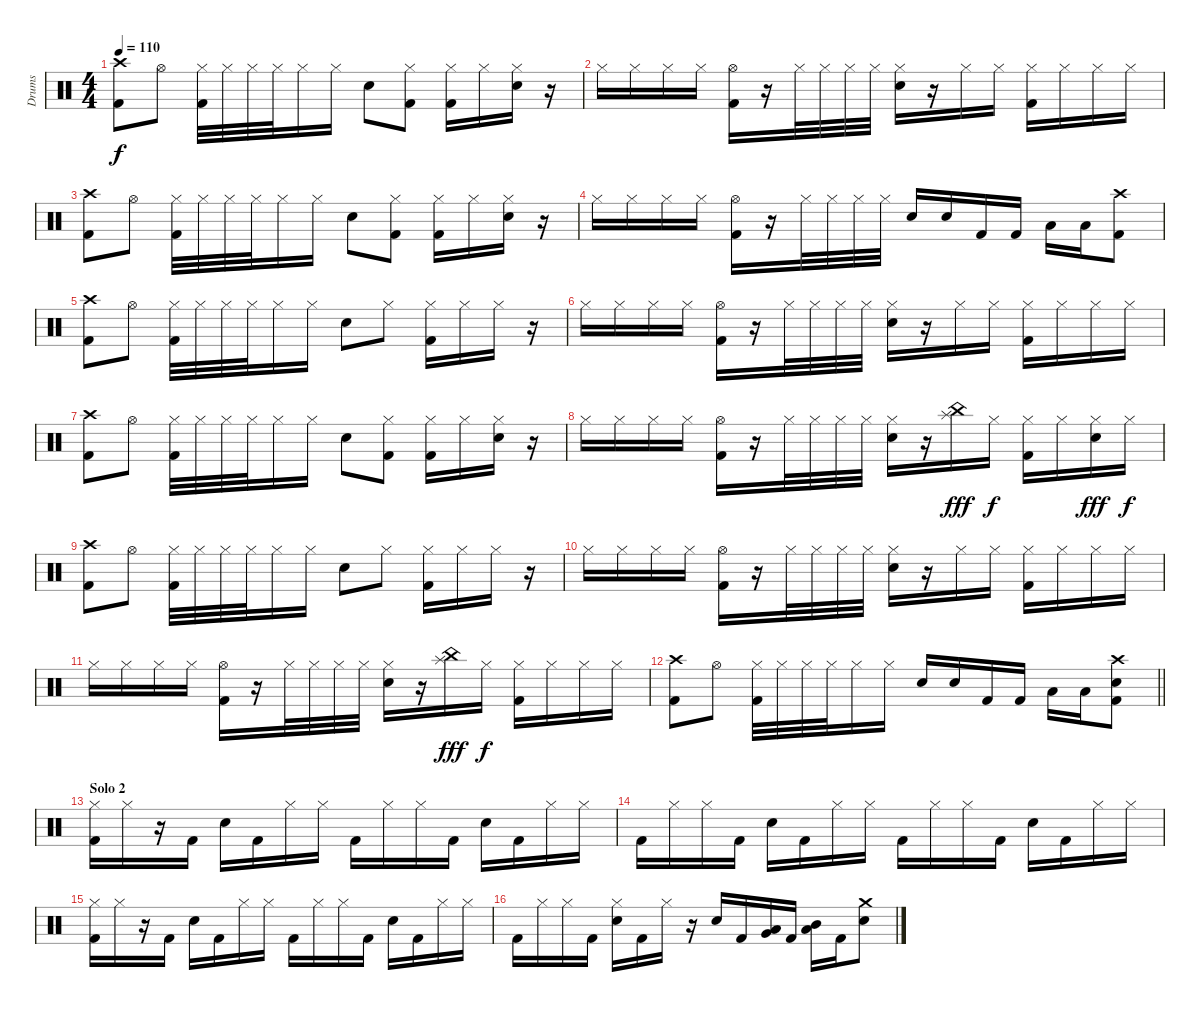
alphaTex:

\track ("Drums" "Drums") {instrument percussion}
\staff {score}
\articulation defaults
\ts (4 4)
\tempo 110
\clef neutral
\ks c
("Crash high (hit)" "Kick (hit) 2").8{dy f} "Hi-Hat (open)".8 ("Hi-Hat (closed)" "Kick (hit) 2").32 "Hi-Hat (closed)".32 "Hi-Hat (closed)".32 "Hi-Hat (closed)".32 "Hi-Hat (closed)".16 "Hi-Hat (closed)".16 "Electric Snare (hit)".8 ("Hi-Hat (closed)" "Kick (hit) 2").8 ("Hi-Hat (closed)" "Kick (hit) 2").16 "Hi-Hat (closed)".16 ("Hi-Hat (closed)" "Electric Snare (hit)").16 r.16 |
"Hi-Hat (closed)".16 "Hi-Hat (closed)".16 "Hi-Hat (closed)".16 "Hi-Hat (closed)".16 ("Hi-Hat (open)" "Kick (hit) 2").16 r.16 "Hi-Hat (closed)".32 "Hi-Hat (closed)".32 "Hi-Hat (closed)".32 "Hi-Hat (closed)".32 ("Hi-Hat (closed)" "Electric Snare (hit)").16 r.16 "Hi-Hat (closed)".16 "Hi-Hat (closed)".16 ("Hi-Hat (closed)" "Kick (hit) 2").16 "Hi-Hat (closed)".16 "Hi-Hat (closed)".16 "Hi-Hat (closed)".16 |
("Crash high (hit)" "Kick (hit) 2").8 "Hi-Hat (open)".8 ("Hi-Hat (closed)" "Kick (hit) 2").32 "Hi-Hat (closed)".32 "Hi-Hat (closed)".32 "Hi-Hat (closed)".32 "Hi-Hat (closed)".16 "Hi-Hat (closed)".16 "Electric Snare (hit)".8 ("Hi-Hat (closed)" "Kick (hit) 2").8 ("Hi-Hat (closed)" "Kick (hit) 2").16 "Hi-Hat (closed)".16 ("Hi-Hat (closed)" "Electric Snare (hit)").16 r.16 |
"Hi-Hat (closed)".16 "Hi-Hat (closed)".16 "Hi-Hat (closed)".16 "Hi-Hat (closed)".16 ("Hi-Hat (open)" "Kick (hit) 2").16 r.16 "Hi-Hat (closed)".32 "Hi-Hat (closed)".32 "Hi-Hat (closed)".32 "Hi-Hat (closed)".32 "Electric Snare (hit)".16 "Electric Snare (hit)".16 "Kick (hit) 2".16 "Kick (hit) 2".16 "Low Tom (hit)".16 "Low Tom (hit)".16 ("Crash high (hit)" "Kick (hit) 2").8 |
("Crash high (hit)" "Kick (hit) 2").8 "Hi-Hat (open)".8 ("Hi-Hat (closed)" "Kick (hit) 2").32 "Hi-Hat (closed)".32 "Hi-Hat (closed)".32 "Hi-Hat (closed)".32 "Hi-Hat (closed)".16 "Hi-Hat (closed)".16 "Electric Snare (hit)".8 "Hi-Hat (closed)".8 ("Hi-Hat (closed)" "Kick (hit) 2").16 "Hi-Hat (closed)".16 "Hi-Hat (closed)".16 r.16 |
"Hi-Hat (closed)".16 "Hi-Hat (closed)".16 "Hi-Hat (closed)".16 "Hi-Hat (closed)".16 ("Hi-Hat (open)" "Kick (hit) 2").16 r.16 "Hi-Hat (closed)".32 "Hi-Hat (closed)".32 "Hi-Hat (closed)".32 "Hi-Hat (closed)".32 ("Hi-Hat (closed)" "Electric Snare (hit)").16 r.16 "Hi-Hat (closed)".16 "Hi-Hat (closed)".16 ("Hi-Hat (closed)" "Kick (hit) 2").16 "Hi-Hat (closed)".16 "Hi-Hat (closed)".16 "Hi-Hat (closed)".16 |
("Crash high (hit)" "Kick (hit) 2").8 "Hi-Hat (open)".8 ("Hi-Hat (closed)" "Kick (hit) 2").32 "Hi-Hat (closed)".32 "Hi-Hat (closed)".32 "Hi-Hat (closed)".32 "Hi-Hat (closed)".16 "Hi-Hat (closed)".16 "Electric Snare (hit)".8 ("Hi-Hat (closed)" "Kick (hit) 2").8 ("Hi-Hat (closed)" "Kick (hit) 2").16 "Hi-Hat (closed)".16 ("Hi-Hat (closed)" "Electric Snare (hit)").16 r.16 |
"Hi-Hat (closed)".16 "Hi-Hat (closed)".16 "Hi-Hat (closed)".16 "Hi-Hat (closed)".16 ("Hi-Hat (open)" "Kick (hit) 2").16 r.16 "Hi-Hat (closed)".32 "Hi-Hat (closed)".32 "Hi-Hat (closed)".32 "Hi-Hat (closed)".32 ("Hi-Hat (closed)" "Electric Snare (hit)").16 r.16 ("Splash (hit)" "China (hit)").16{dy fff} "Hi-Hat (closed)".16{dy f} ("Hi-Hat (closed)" "Kick (hit) 2").16 "Hi-Hat (closed)".16 ("Hi-Hat (closed)" "Electric Snare (hit)").16{dy fff} "Hi-Hat (closed)".16{dy f} |
("Crash high (hit)" "Kick (hit) 2").8 "Hi-Hat (open)".8 ("Hi-Hat (closed)" "Kick (hit) 2").32 "Hi-Hat (closed)".32 "Hi-Hat (closed)".32 "Hi-Hat (closed)".32 "Hi-Hat (closed)".16 "Hi-Hat (closed)".16 "Electric Snare (hit)".8 "Hi-Hat (closed)".8 ("Hi-Hat (closed)" "Kick (hit) 2").16 "Hi-Hat (closed)".16 "Hi-Hat (closed)".16 r.16 |
"Hi-Hat (closed)".16 "Hi-Hat (closed)".16 "Hi-Hat (closed)".16 "Hi-Hat (closed)".16 ("Hi-Hat (open)" "Kick (hit) 2").16 r.16 "Hi-Hat (closed)".32 "Hi-Hat (closed)".32 "Hi-Hat (closed)".32 "Hi-Hat (closed)".32 ("Hi-Hat (closed)" "Electric Snare (hit)").16 r.16 "Hi-Hat (closed)".16 "Hi-Hat (closed)".16 ("Hi-Hat (closed)" "Kick (hit) 2").16 "Hi-Hat (closed)".16 "Hi-Hat (closed)".16 "Hi-Hat (closed)".16 |
"Hi-Hat (closed)".16 "Hi-Hat (closed)".16 "Hi-Hat (closed)".16 "Hi-Hat (closed)".16 ("Hi-Hat (open)" "Kick (hit) 2").16 r.16 "Hi-Hat (closed)".32 "Hi-Hat (closed)".32 "Hi-Hat (closed)".32 "Hi-Hat (closed)".32 ("Hi-Hat (closed)" "Electric Snare (hit)").16 r.16 ("Splash (hit)" "China (hit)").16{dy fff} "Hi-Hat (closed)".16{dy f} ("Hi-Hat (closed)" "Kick (hit) 2").16 "Hi-Hat (closed)".16 "Hi-Hat (closed)".16 "Hi-Hat (closed)".16 |
\barLineRight lightlight
("Crash high (hit)" "Kick (hit) 2").8 "Hi-Hat (open)".8 ("Hi-Hat (closed)" "Kick (hit) 2").32 "Hi-Hat (closed)".32 "Hi-Hat (closed)".32 "Hi-Hat (closed)".32 "Hi-Hat (closed)".16 "Hi-Hat (closed)".16 "Electric Snare (hit)".16 "Electric Snare (hit)".16 "Kick (hit) 2".16 "Kick (hit) 2".16 "Low Tom (hit)".16 "Low Tom (hit)".16 ("Crash high (hit)" "Electric Snare (hit)" "Kick (hit) 2").8 |
\section ("" "Solo 2")
("Hi-Hat (closed)" "Kick (hit) 2").16 "Hi-Hat (closed)".16 r.16 "Kick (hit) 2".16 "Electric Snare (hit)".16 "Kick (hit) 2".16 "Hi-Hat (closed)".16 "Hi-Hat (closed)".16 "Kick (hit) 2".16 "Hi-Hat (closed)".16 "Hi-Hat (closed)".16 "Kick (hit) 2".16 "Electric Snare (hit)".16 "Kick (hit) 2".16 "Hi-Hat (closed)".16 "Hi-Hat (closed)".16 |
"Kick (hit) 2".16 "Hi-Hat (closed)".16 "Hi-Hat (closed)".16 "Kick (hit) 2".16 "Electric Snare (hit)".16 "Kick (hit) 2".16 "Hi-Hat (closed)".16 "Hi-Hat (closed)".16 "Kick (hit) 2".16 "Hi-Hat (closed)".16 "Hi-Hat (closed)".16 "Kick (hit) 2".16 "Electric Snare (hit)".16 "Kick (hit) 2".16 "Hi-Hat (closed)".16 "Hi-Hat (closed)".16 |
("Hi-Hat (closed)" "Kick (hit) 2").16 "Hi-Hat (closed)".16 r.16 "Kick (hit) 2".16 "Electric Snare (hit)".16 "Kick (hit) 2".16 "Hi-Hat (closed)".16 "Hi-Hat (closed)".16 "Kick (hit) 2".16 "Hi-Hat (closed)".16 "Hi-Hat (closed)".16 "Kick (hit) 2".16 "Electric Snare (hit)".16 "Kick (hit) 2".16 "Hi-Hat (closed)".16 "Hi-Hat (closed)".16 |
"Kick (hit) 2".16 "Hi-Hat (closed)".16 "Hi-Hat (closed)".16 "Kick (hit) 2".16 ("Hi-Hat (closed)" "Electric Snare (hit)").16 "Kick (hit) 2".16 "Hi-Hat (closed)".16 r.16 "Electric Snare (hit)".16 "Kick (hit) 2".16 ("Low Tom (hit)" "Very Low Tom (hit)").16 "Kick (hit) 2".16 ("Mid Tom (hit)" "Low Tom (hit)").16 "Kick (hit) 2".16 ("Crash medium (hit)" "Electric Snare (hit)").8
